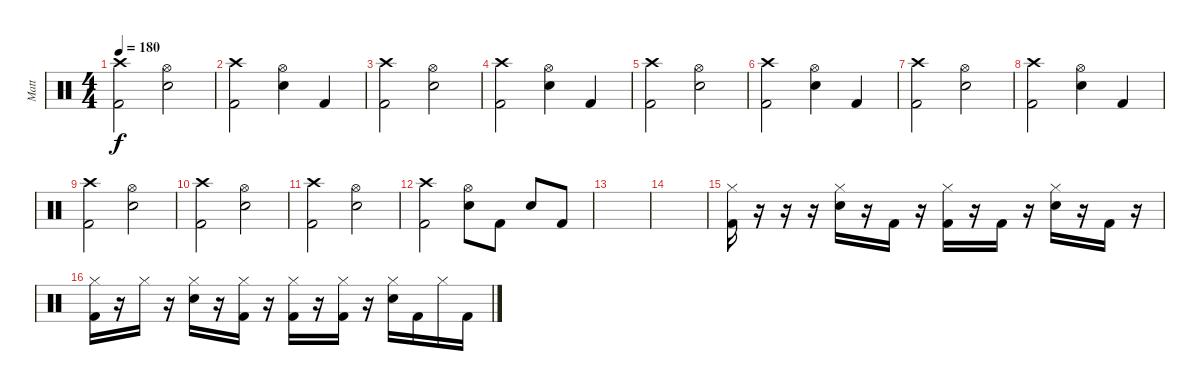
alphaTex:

\track ("Matt" "Matt") {instrument percussion}
\staff {score}
\articulation defaults
\ts (4 4)
\tempo 180
\clef neutral
\ks c
("Crash high (hit)" "Kick (hit) 2").2{dy f} ("Hi-Hat (open)" "Snare (hit) 2").2 |
("Crash high (hit)" "Kick (hit) 2").2 ("Hi-Hat (open)" "Snare (hit) 2").4 "Kick (hit) 2".4 |
("Crash high (hit)" "Kick (hit) 2").2 ("Hi-Hat (open)" "Snare (hit) 2").2 |
("Crash high (hit)" "Kick (hit) 2").2 ("Hi-Hat (open)" "Snare (hit) 2").4 "Kick (hit) 2".4 |
("Crash high (hit)" "Kick (hit) 2").2 ("Hi-Hat (open)" "Snare (hit) 2").2 |
("Crash high (hit)" "Kick (hit) 2").2 ("Hi-Hat (open)" "Snare (hit) 2").4 "Kick (hit) 2".4 |
("Crash high (hit)" "Kick (hit) 2").2 ("Hi-Hat (open)" "Snare (hit) 2").2 |
("Crash high (hit)" "Kick (hit) 2").2 ("Hi-Hat (open)" "Snare (hit) 2").4 "Kick (hit) 2".4 |
("Crash high (hit)" "Kick (hit) 2").2 ("Hi-Hat (open)" "Snare (hit) 2").2 |
("Crash high (hit)" "Kick (hit) 2").2 ("Hi-Hat (open)" "Snare (hit) 2").2 |
("Crash high (hit)" "Kick (hit) 2").2 ("Hi-Hat (open)" "Snare (hit) 2").2 |
("Crash high (hit)" "Kick (hit) 2").2 ("Hi-Hat (open)" "Snare (hit) 2").8 "Kick (hit) 2".8 "Snare (hit) 2".8 "Kick (hit) 2".8 |
|
|
("Hi-Hat (closed)" "Kick (hit) 2").16 r.16 r.16 r.16 ("Hi-Hat (closed)" "Snare (hit) 2").16 r.16 "Kick (hit) 2".16 r.16 ("Hi-Hat (closed)" "Kick (hit) 2").16 r.16 "Kick (hit) 2".16 r.16 ("Hi-Hat (closed)" "Snare (hit) 2").16 r.16 "Kick (hit) 2".16 r.16 |
("Hi-Hat (closed)" "Kick (hit) 2").16 r.16 "Hi-Hat (closed)".16 r.16 ("Hi-Hat (closed)" "Snare (hit) 2").16 r.16 ("Hi-Hat (closed)" "Kick (hit) 2").16 r.16 ("Hi-Hat (closed)" "Kick (hit) 2").16 r.16 ("Hi-Hat (closed)" "Kick (hit) 2").16 r.16 ("Hi-Hat (closed)" "Snare (hit) 2").16 "Kick (hit) 2".16 "Hi-Hat (closed)".16 "Kick (hit) 2".16
